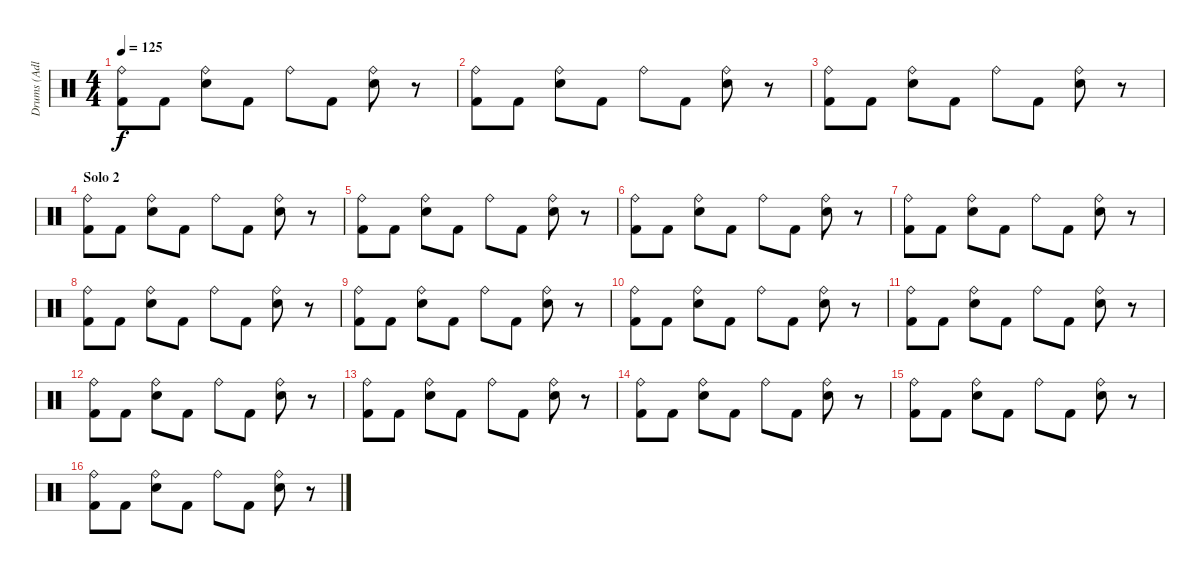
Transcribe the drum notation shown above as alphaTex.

\track ("Drums (Adler)" "Drums (Adl") {instrument percussion}
\staff {score}
\articulation defaults
\ts (4 4)
\tempo 125
\clef neutral
\ks c
("Kick (hit) 2" "Ride (bell)").8{dy f} "Kick (hit) 2".8 ("Electric Snare (hit)" "Ride (bell)").8 "Kick (hit) 2".8 "Ride (bell)".8 "Kick (hit) 2".8 ("Electric Snare (hit)" "Ride (bell)").8 r.8 |
("Kick (hit) 2" "Ride (bell)").8 "Kick (hit) 2".8 ("Electric Snare (hit)" "Ride (bell)").8 "Kick (hit) 2".8 "Ride (bell)".8 "Kick (hit) 2".8 ("Electric Snare (hit)" "Ride (bell)").8 r.8 |
("Kick (hit) 2" "Ride (bell)").8 "Kick (hit) 2".8 ("Electric Snare (hit)" "Ride (bell)").8 "Kick (hit) 2".8 "Ride (bell)".8 "Kick (hit) 2".8 ("Electric Snare (hit)" "Ride (bell)").8 r.8 |
\section ("" "Solo 2")
("Kick (hit) 2" "Ride (bell)").8 "Kick (hit) 2".8 ("Electric Snare (hit)" "Ride (bell)").8 "Kick (hit) 2".8 "Ride (bell)".8 "Kick (hit) 2".8 ("Electric Snare (hit)" "Ride (bell)").8 r.8 |
("Kick (hit) 2" "Ride (bell)").8 "Kick (hit) 2".8 ("Electric Snare (hit)" "Ride (bell)").8 "Kick (hit) 2".8 "Ride (bell)".8 "Kick (hit) 2".8 ("Electric Snare (hit)" "Ride (bell)").8 r.8 |
("Kick (hit) 2" "Ride (bell)").8 "Kick (hit) 2".8 ("Electric Snare (hit)" "Ride (bell)").8 "Kick (hit) 2".8 "Ride (bell)".8 "Kick (hit) 2".8 ("Electric Snare (hit)" "Ride (bell)").8 r.8 |
("Kick (hit) 2" "Ride (bell)").8 "Kick (hit) 2".8 ("Electric Snare (hit)" "Ride (bell)").8 "Kick (hit) 2".8 "Ride (bell)".8 "Kick (hit) 2".8 ("Electric Snare (hit)" "Ride (bell)").8 r.8 |
("Kick (hit) 2" "Ride (bell)").8 "Kick (hit) 2".8 ("Electric Snare (hit)" "Ride (bell)").8 "Kick (hit) 2".8 "Ride (bell)".8 "Kick (hit) 2".8 ("Electric Snare (hit)" "Ride (bell)").8 r.8 |
("Kick (hit) 2" "Ride (bell)").8 "Kick (hit) 2".8 ("Electric Snare (hit)" "Ride (bell)").8 "Kick (hit) 2".8 "Ride (bell)".8 "Kick (hit) 2".8 ("Electric Snare (hit)" "Ride (bell)").8 r.8 |
("Kick (hit) 2" "Ride (bell)").8 "Kick (hit) 2".8 ("Electric Snare (hit)" "Ride (bell)").8 "Kick (hit) 2".8 "Ride (bell)".8 "Kick (hit) 2".8 ("Electric Snare (hit)" "Ride (bell)").8 r.8 |
("Kick (hit) 2" "Ride (bell)").8 "Kick (hit) 2".8 ("Electric Snare (hit)" "Ride (bell)").8 "Kick (hit) 2".8 "Ride (bell)".8 "Kick (hit) 2".8 ("Electric Snare (hit)" "Ride (bell)").8 r.8 |
("Kick (hit) 2" "Ride (bell)").8 "Kick (hit) 2".8 ("Electric Snare (hit)" "Ride (bell)").8 "Kick (hit) 2".8 "Ride (bell)".8 "Kick (hit) 2".8 ("Electric Snare (hit)" "Ride (bell)").8 r.8 |
("Kick (hit) 2" "Ride (bell)").8 "Kick (hit) 2".8 ("Electric Snare (hit)" "Ride (bell)").8 "Kick (hit) 2".8 "Ride (bell)".8 "Kick (hit) 2".8 ("Electric Snare (hit)" "Ride (bell)").8 r.8 |
("Kick (hit) 2" "Ride (bell)").8 "Kick (hit) 2".8 ("Electric Snare (hit)" "Ride (bell)").8 "Kick (hit) 2".8 "Ride (bell)".8 "Kick (hit) 2".8 ("Electric Snare (hit)" "Ride (bell)").8 r.8 |
("Kick (hit) 2" "Ride (bell)").8 "Kick (hit) 2".8 ("Electric Snare (hit)" "Ride (bell)").8 "Kick (hit) 2".8 "Ride (bell)".8 "Kick (hit) 2".8 ("Electric Snare (hit)" "Ride (bell)").8 r.8 |
("Kick (hit) 2" "Ride (bell)").8 "Kick (hit) 2".8 ("Electric Snare (hit)" "Ride (bell)").8 "Kick (hit) 2".8 "Ride (bell)".8 "Kick (hit) 2".8 ("Electric Snare (hit)" "Ride (bell)").8 r.8
